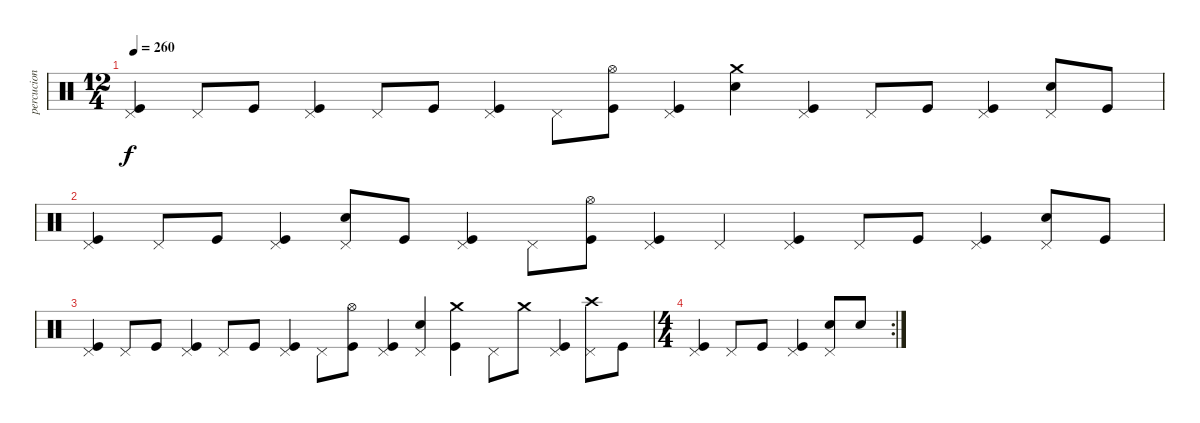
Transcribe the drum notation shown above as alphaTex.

\track ("percucion" "percucion") {instrument percussion}
\staff {score}
\articulation defaults
\ts (12 4)
\tempo 260
\clef neutral
\ks c
("Pedal Hi-Hat (hit)" "Kick (hit)").4{dy f} "Pedal Hi-Hat (hit)".8 "Kick (hit)".8 ("Pedal Hi-Hat (hit)" "Kick (hit)").4 "Pedal Hi-Hat (hit)".8 "Kick (hit)".8 ("Pedal Hi-Hat (hit)" "Kick (hit)").4 "Pedal Hi-Hat (hit)".8 ("Hi-Hat (open)" "Kick (hit)").8 ("Pedal Hi-Hat (hit)" "Kick (hit)").4 ("Crash medium (hit)" "Electric Snare (hit)").4 ("Pedal Hi-Hat (hit)" "Kick (hit)").4 "Pedal Hi-Hat (hit)".8 "Kick (hit)".8 ("Pedal Hi-Hat (hit)" "Kick (hit)").4 ("Pedal Hi-Hat (hit)" "Electric Snare (hit)").8 "Kick (hit)".8 |
("Pedal Hi-Hat (hit)" "Kick (hit)").4 "Pedal Hi-Hat (hit)".8 "Kick (hit)".8 ("Pedal Hi-Hat (hit)" "Kick (hit)").4 ("Pedal Hi-Hat (hit)" "Electric Snare (hit)").8 "Kick (hit)".8 ("Pedal Hi-Hat (hit)" "Kick (hit)").4 "Pedal Hi-Hat (hit)".8 ("Hi-Hat (open)" "Kick (hit)").8 ("Pedal Hi-Hat (hit)" "Kick (hit)").4 "Pedal Hi-Hat (hit)".4 ("Pedal Hi-Hat (hit)" "Kick (hit)").4 "Pedal Hi-Hat (hit)".8 "Kick (hit)".8 ("Pedal Hi-Hat (hit)" "Kick (hit)").4 ("Pedal Hi-Hat (hit)" "Electric Snare (hit)").8 "Kick (hit)".8 |
("Pedal Hi-Hat (hit)" "Kick (hit)").4 "Pedal Hi-Hat (hit)".8 "Kick (hit)".8 ("Pedal Hi-Hat (hit)" "Kick (hit)").4 "Pedal Hi-Hat (hit)".8 "Kick (hit)".8 ("Pedal Hi-Hat (hit)" "Kick (hit)").4 "Pedal Hi-Hat (hit)".8 ("Hi-Hat (open)" "Kick (hit)").8 ("Pedal Hi-Hat (hit)" "Kick (hit)").4 ("Pedal Hi-Hat (hit)" "Electric Snare (hit)").4 ("Crash medium (hit)" "Kick (hit)").4 "Pedal Hi-Hat (hit)".8 "Crash medium (hit)".8 ("Pedal Hi-Hat (hit)" "Kick (hit)").4 ("Pedal Hi-Hat (hit)" "Crash high (hit)").8 "Kick (hit)".8 |
\rc 2
\ts (4 4)
("Pedal Hi-Hat (hit)" "Kick (hit)").4 "Pedal Hi-Hat (hit)".8 "Kick (hit)".8 ("Pedal Hi-Hat (hit)" "Kick (hit)").4 ("Pedal Hi-Hat (hit)" "Electric Snare (hit)").8 "Electric Snare (hit)".8
